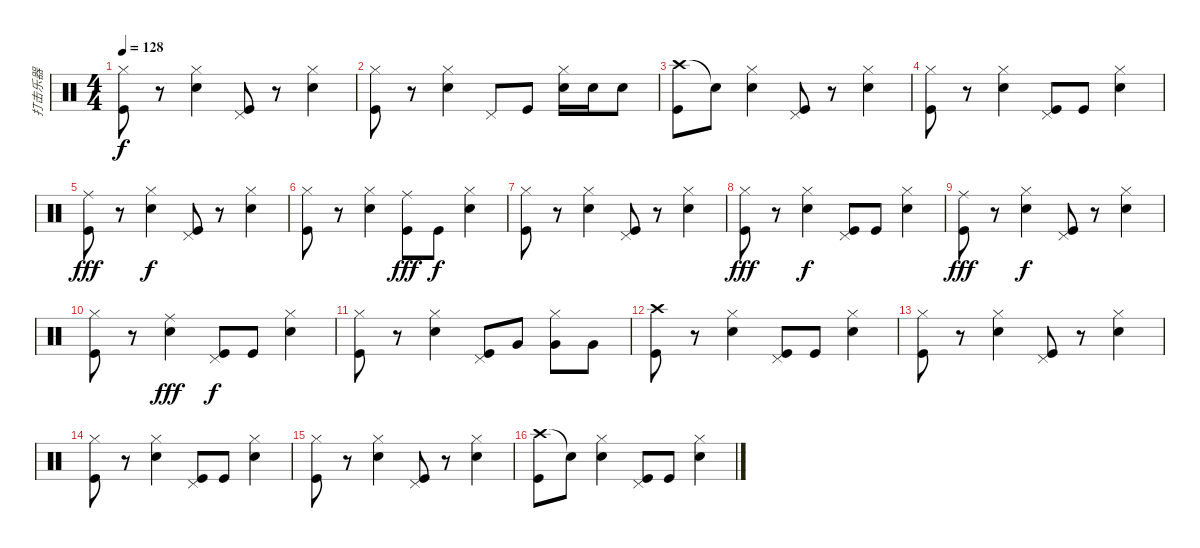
\track ("打击乐器" "打击乐器") {instrument percussion}
\staff {score}
\articulation defaults
\ts (4 4)
\tempo 128
\clef neutral
\ks c
("Hi-Hat (closed)" "Kick (hit)").8{dy f} r.8 ("Hi-Hat (closed)" "Snare (hit) 2").4 ("Pedal Hi-Hat (hit)" "Kick (hit)").8 r.8 ("Hi-Hat (closed)" "Snare (hit) 2").4 |
("Hi-Hat (closed)" "Kick (hit)").8 r.8 ("Hi-Hat (closed)" "Snare (hit) 2").4 "Pedal Hi-Hat (hit)".8 "Kick (hit)".8 ("Hi-Hat (closed)" "Snare (hit) 2").16 "Snare (hit) 2".16 "Snare (hit) 2".8 |
("Crash high (hit)" "Kick (hit)").8 "Snare (hit)"{t}.8 ("Hi-Hat (closed)" "Snare (hit) 2").4 ("Pedal Hi-Hat (hit)" "Kick (hit)").8 r.8 ("Hi-Hat (closed)" "Snare (hit) 2").4 |
("Hi-Hat (closed)" "Kick (hit)").8 r.8 ("Hi-Hat (closed)" "Snare (hit) 2").4 ("Pedal Hi-Hat (hit)" "Kick (hit)").8 "Kick (hit)".8 ("Hi-Hat (closed)" "Snare (hit) 2").4 |
("Ride (middle)" "Kick (hit)").8{dy fff} r.8 ("Hi-Hat (closed)" "Snare (hit) 2").4{dy f} ("Pedal Hi-Hat (hit)" "Kick (hit)").8 r.8 ("Hi-Hat (closed)" "Snare (hit) 2").4 |
("Hi-Hat (closed)" "Kick (hit)").8 r.8 ("Hi-Hat (closed)" "Snare (hit) 2").4 ("Ride (middle)" "Kick (hit)").8{dy fff} "Kick (hit)".8{dy f} ("Hi-Hat (closed)" "Snare (hit) 2").4 |
("Hi-Hat (closed)" "Kick (hit)").8 r.8 ("Hi-Hat (closed)" "Snare (hit) 2").4 ("Pedal Hi-Hat (hit)" "Kick (hit)").8 r.8 ("Hi-Hat (closed)" "Snare (hit) 2").4 |
("Hi-Hat (closed)" "Kick (hit)").8{dy fff} r.8 ("Hi-Hat (closed)" "Snare (hit) 2").4{dy f} ("Pedal Hi-Hat (hit)" "Kick (hit)").8 "Kick (hit)".8 ("Hi-Hat (closed)" "Snare (hit) 2").4 |
("Ride (middle)" "Kick (hit)").8{dy fff} r.8 ("Hi-Hat (closed)" "Snare (hit) 2").4{dy f} ("Pedal Hi-Hat (hit)" "Kick (hit)").8 r.8 ("Hi-Hat (closed)" "Snare (hit) 2").4 |
("Hi-Hat (closed)" "Kick (hit)").8 r.8 ("Ride (middle)" "Snare (hit) 2").4{dy fff} ("Pedal Hi-Hat (hit)" "Kick (hit)").8{dy f} "Kick (hit)".8 ("Hi-Hat (closed)" "Snare (hit) 2").4 |
("Hi-Hat (closed)" "Kick (hit)").8 r.8 ("Hi-Hat (closed)" "Snare (hit) 2").4 ("Pedal Hi-Hat (hit)" "Kick (hit)").8 "Very Low Tom (hit)".8 ("Hi-Hat (closed)" "Very Low Tom (hit)").8 "Very Low Tom (hit)".8 |
("Crash high (hit)" "Kick (hit)").8 r.8 ("Hi-Hat (closed)" "Snare (hit) 2").4 ("Pedal Hi-Hat (hit)" "Kick (hit)").8 "Kick (hit)".8 ("Hi-Hat (closed)" "Snare (hit) 2").4 |
("Hi-Hat (closed)" "Kick (hit)").8 r.8 ("Hi-Hat (closed)" "Snare (hit) 2").4 ("Pedal Hi-Hat (hit)" "Kick (hit)").8 r.8 ("Hi-Hat (closed)" "Snare (hit) 2").4 |
("Hi-Hat (closed)" "Kick (hit)").8 r.8 ("Hi-Hat (closed)" "Snare (hit) 2").4 ("Pedal Hi-Hat (hit)" "Kick (hit)").8 "Kick (hit)".8 ("Hi-Hat (closed)" "Snare (hit) 2").4 |
("Hi-Hat (closed)" "Kick (hit)").8 r.8 ("Hi-Hat (closed)" "Snare (hit) 2").4 ("Pedal Hi-Hat (hit)" "Kick (hit)").8 r.8 ("Hi-Hat (closed)" "Snare (hit) 2").4 |
("Crash high (hit)" "Kick (hit)").8 "Snare (hit)"{t}.8 ("Hi-Hat (closed)" "Snare (hit) 2").4 ("Pedal Hi-Hat (hit)" "Kick (hit)").8 "Kick (hit)".8 ("Hi-Hat (closed)" "Snare (hit) 2").4
